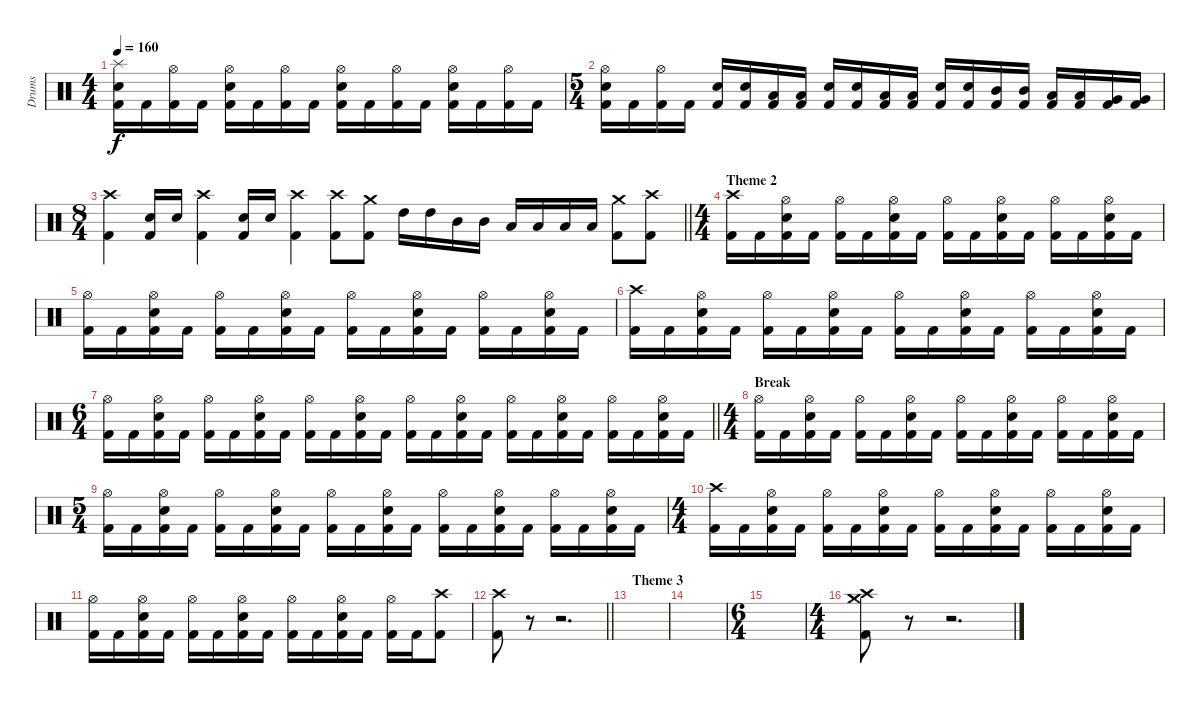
\track ("Drums" "Drums") {instrument percussion}
\staff {score}
\articulation defaults
\ts (4 4)
\tempo 160
\clef neutral
\ks c
("Splash (hit)" "Snare (hit) 2" "Kick (hit) 2").16{dy f} "Kick (hit) 2".16 ("Hi-Hat (open)" "Kick (hit) 2").16 "Kick (hit) 2".16 ("Hi-Hat (open)" "Snare (hit) 2" "Kick (hit) 2").16 "Kick (hit) 2".16 ("Hi-Hat (open)" "Kick (hit) 2").16 "Kick (hit) 2".16 ("Hi-Hat (open)" "Snare (hit) 2" "Kick (hit) 2").16 "Kick (hit) 2".16 ("Hi-Hat (open)" "Kick (hit) 2").16 "Kick (hit) 2".16 ("Hi-Hat (open)" "Snare (hit) 2" "Kick (hit) 2").16 "Kick (hit) 2".16 ("Hi-Hat (open)" "Kick (hit) 2").16 "Kick (hit) 2".16 |
\ts (5 4)
("Hi-Hat (open)" "Snare (hit) 2" "Kick (hit) 2").16 "Kick (hit) 2".16 ("Hi-Hat (open)" "Kick (hit) 2").16 "Kick (hit) 2".16 ("Snare (hit) 2" "Kick (hit) 2").16 ("Snare (hit) 2" "Kick (hit) 2").16 ("Low Floor Tom (hit)" "Kick (hit) 2").16 ("Low Floor Tom (hit)" "Kick (hit) 2").16 ("Snare (hit) 2" "Kick (hit) 2").16 ("Snare (hit) 2" "Kick (hit) 2").16 ("Low Floor Tom (hit)" "Kick (hit) 2").16 ("Low Floor Tom (hit)" "Kick (hit) 2").16 ("Snare (hit) 2" "Kick (hit) 2").16 ("Snare (hit) 2" "Kick (hit) 2").16 ("Mid Tom (hit)" "Kick (hit) 2").16 ("Mid Tom (hit)" "Kick (hit) 2").16 ("Low Tom (hit)" "Kick (hit) 2").16 ("Low Tom (hit)" "Kick (hit) 2").16 ("Very Low Tom (hit)" "Kick (hit) 2").16 ("Very Low Tom (hit)" "Kick (hit) 2").16 |
\ts (8 4)
\barLineRight lightlight
("Crash high (hit)" "Kick (hit) 2").4 ("Snare (hit) 2" "Kick (hit) 2").16 "Snare (hit) 2".16 ("Crash high (hit)" "Kick (hit) 2").4 ("Snare (hit) 2" "Kick (hit) 2").16 "Snare (hit) 2".16 ("Crash high (hit)" "Kick (hit) 2").4 ("Crash high (hit)" "Kick (hit) 2").8 ("Crash medium (hit)" "Kick (hit) 2").8 "High Tom (hit)".16 "High Tom (hit)".16 "Mid Tom (hit)".16 "Mid Tom (hit)".16 "Low Tom (hit)".16 "Low Tom (hit)".16 "Low Tom (hit)".16 "Low Tom (hit)".16 ("Crash medium (hit)" "Kick (hit) 2").8 ("Crash high (hit)" "Kick (hit) 2").8 |
\ts (4 4)
\section ("" "Theme 2")
("Crash high (hit)" "Kick (hit) 2").16 "Kick (hit) 2".16 ("Hi-Hat (open)" "Snare (hit) 2" "Kick (hit) 2").16 "Kick (hit) 2".16 ("Hi-Hat (open)" "Kick (hit) 2").16 "Kick (hit) 2".16 ("Hi-Hat (open)" "Snare (hit) 2" "Kick (hit) 2").16 "Kick (hit) 2".16 ("Hi-Hat (open)" "Kick (hit) 2").16 "Kick (hit) 2".16 ("Hi-Hat (open)" "Snare (hit) 2" "Kick (hit) 2").16 "Kick (hit) 2".16 ("Hi-Hat (open)" "Kick (hit) 2").16 "Kick (hit) 2".16 ("Hi-Hat (open)" "Snare (hit) 2" "Kick (hit) 2").16 "Kick (hit) 2".16 |
("Hi-Hat (open)" "Kick (hit) 2").16 "Kick (hit) 2".16 ("Hi-Hat (open)" "Snare (hit) 2" "Kick (hit) 2").16 "Kick (hit) 2".16 ("Hi-Hat (open)" "Kick (hit) 2").16 "Kick (hit) 2".16 ("Hi-Hat (open)" "Snare (hit) 2" "Kick (hit) 2").16 "Kick (hit) 2".16 ("Hi-Hat (open)" "Kick (hit) 2").16 "Kick (hit) 2".16 ("Hi-Hat (open)" "Snare (hit) 2" "Kick (hit) 2").16 "Kick (hit) 2".16 ("Hi-Hat (open)" "Kick (hit) 2").16 "Kick (hit) 2".16 ("Hi-Hat (open)" "Snare (hit) 2" "Kick (hit) 2").16 "Kick (hit) 2".16 |
("Crash high (hit)" "Kick (hit) 2").16 "Kick (hit) 2".16 ("Hi-Hat (open)" "Snare (hit) 2" "Kick (hit) 2").16 "Kick (hit) 2".16 ("Hi-Hat (open)" "Kick (hit) 2").16 "Kick (hit) 2".16 ("Hi-Hat (open)" "Snare (hit) 2" "Kick (hit) 2").16 "Kick (hit) 2".16 ("Hi-Hat (open)" "Kick (hit) 2").16 "Kick (hit) 2".16 ("Hi-Hat (open)" "Snare (hit) 2" "Kick (hit) 2").16 "Kick (hit) 2".16 ("Hi-Hat (open)" "Kick (hit) 2").16 "Kick (hit) 2".16 ("Hi-Hat (open)" "Snare (hit) 2" "Kick (hit) 2").16 "Kick (hit) 2".16 |
\ts (6 4)
\barLineRight lightlight
("Hi-Hat (open)" "Kick (hit) 2").16 "Kick (hit) 2".16 ("Hi-Hat (open)" "Snare (hit) 2" "Kick (hit) 2").16 "Kick (hit) 2".16 ("Hi-Hat (open)" "Kick (hit) 2").16 "Kick (hit) 2".16 ("Hi-Hat (open)" "Snare (hit) 2" "Kick (hit) 2").16 "Kick (hit) 2".16 ("Hi-Hat (open)" "Kick (hit) 2").16 "Kick (hit) 2".16 ("Hi-Hat (open)" "Snare (hit) 2" "Kick (hit) 2").16 "Kick (hit) 2".16 ("Hi-Hat (open)" "Kick (hit) 2").16 "Kick (hit) 2".16 ("Hi-Hat (open)" "Snare (hit) 2" "Kick (hit) 2").16 "Kick (hit) 2".16 ("Hi-Hat (open)" "Kick (hit) 2").16 "Kick (hit) 2".16 ("Hi-Hat (open)" "Snare (hit) 2" "Kick (hit) 2").16 "Kick (hit) 2".16 ("Hi-Hat (open)" "Kick (hit) 2").16 "Kick (hit) 2".16 ("Hi-Hat (open)" "Snare (hit) 2" "Kick (hit) 2").16 "Kick (hit) 2".16 |
\ts (4 4)
\section ("" "Break")
("Hi-Hat (open)" "Kick (hit) 2").16 "Kick (hit) 2".16 ("Hi-Hat (open)" "Snare (hit) 2" "Kick (hit) 2").16 "Kick (hit) 2".16 ("Hi-Hat (open)" "Kick (hit) 2").16 "Kick (hit) 2".16 ("Hi-Hat (open)" "Snare (hit) 2" "Kick (hit) 2").16 "Kick (hit) 2".16 ("Hi-Hat (open)" "Kick (hit) 2").16 "Kick (hit) 2".16 ("Hi-Hat (open)" "Snare (hit) 2" "Kick (hit) 2").16 "Kick (hit) 2".16 ("Hi-Hat (open)" "Kick (hit) 2").16 "Kick (hit) 2".16 ("Hi-Hat (open)" "Snare (hit) 2" "Kick (hit) 2").16 "Kick (hit) 2".16 |
\ts (5 4)
("Hi-Hat (open)" "Kick (hit) 2").16 "Kick (hit) 2".16 ("Hi-Hat (open)" "Snare (hit) 2" "Kick (hit) 2").16 "Kick (hit) 2".16 ("Hi-Hat (open)" "Kick (hit) 2").16 "Kick (hit) 2".16 ("Hi-Hat (open)" "Snare (hit) 2" "Kick (hit) 2").16 "Kick (hit) 2".16 ("Hi-Hat (open)" "Kick (hit) 2").16 "Kick (hit) 2".16 ("Hi-Hat (open)" "Snare (hit) 2" "Kick (hit) 2").16 "Kick (hit) 2".16 ("Hi-Hat (open)" "Kick (hit) 2").16 "Kick (hit) 2".16 ("Hi-Hat (open)" "Snare (hit) 2" "Kick (hit) 2").16 "Kick (hit) 2".16 ("Hi-Hat (open)" "Kick (hit) 2").16 "Kick (hit) 2".16 ("Hi-Hat (open)" "Snare (hit) 2" "Kick (hit) 2").16 "Kick (hit) 2".16 |
\ts (4 4)
("Crash high (hit)" "Kick (hit) 2").16 "Kick (hit) 2".16 ("Hi-Hat (open)" "Snare (hit) 2" "Kick (hit) 2").16 "Kick (hit) 2".16 ("Hi-Hat (open)" "Kick (hit) 2").16 "Kick (hit) 2".16 ("Hi-Hat (open)" "Snare (hit) 2" "Kick (hit) 2").16 "Kick (hit) 2".16 ("Hi-Hat (open)" "Kick (hit) 2").16 "Kick (hit) 2".16 ("Hi-Hat (open)" "Snare (hit) 2" "Kick (hit) 2").16 "Kick (hit) 2".16 ("Hi-Hat (open)" "Kick (hit) 2").16 "Kick (hit) 2".16 ("Hi-Hat (open)" "Snare (hit) 2" "Kick (hit) 2").16 "Kick (hit) 2".16 |
("Hi-Hat (open)" "Kick (hit) 2").16 "Kick (hit) 2".16 ("Hi-Hat (open)" "Snare (hit) 2" "Kick (hit) 2").16 "Kick (hit) 2".16 ("Hi-Hat (open)" "Kick (hit) 2").16 "Kick (hit) 2".16 ("Hi-Hat (open)" "Snare (hit) 2" "Kick (hit) 2").16 "Kick (hit) 2".16 ("Hi-Hat (open)" "Kick (hit) 2").16 "Kick (hit) 2".16 ("Hi-Hat (open)" "Snare (hit) 2" "Kick (hit) 2").16 "Kick (hit) 2".16 ("Hi-Hat (open)" "Kick (hit) 2").16 "Kick (hit) 2".16 ("Crash high (hit)" "Kick (hit) 2").8 |
\barLineRight lightlight
("Crash high (hit)" "Kick (hit) 2").8 r.8 r.2{d} |
\section ("" "Theme 3")
|
|
\ts (6 4)
|
\ts (4 4)
("Crash high (hit)" "Crash medium (hit)" "Kick (hit) 2").8 r.8 r.2{d}
